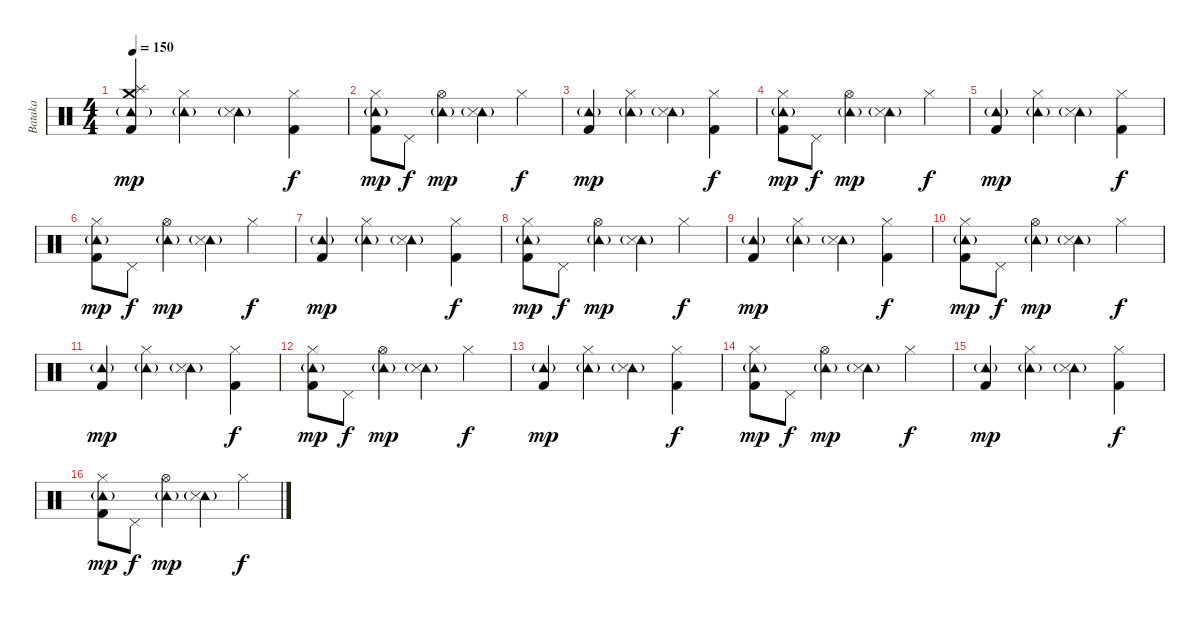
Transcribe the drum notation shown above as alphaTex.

\track ("Bataka" "Bataka") {instrument percussion}
\staff {score}
\articulation defaults
\ts (4 4)
\tempo 150
\clef neutral
\ks c
("Tambourine (hit)"{g} "Crash medium (hit)" "Splash (hit)" "Kick (hit) 2").4{dy mp volume 13} ("Tambourine (hit)"{g} "Hi-Hat (closed)").4 ("Tambourine (hit)"{g} "Snare (side stick) 3").4 ("Hi-Hat (closed)" "Kick (hit) 2").4{dy f} |
("Tambourine (hit)"{g} "Hi-Hat (closed)" "Kick (hit) 2").8{dy mp} "Pedal Hi-Hat (hit)".8{dy f} ("Tambourine (hit)"{g} "Hi-Hat (open)").4{dy mp} ("Tambourine (hit)"{g} "Snare (side stick) 3").4 "Hi-Hat (closed)".4{dy f} |
("Tambourine (hit)"{g} "Kick (hit) 2").4{dy mp} ("Tambourine (hit)"{g} "Hi-Hat (closed)").4 ("Tambourine (hit)"{g} "Snare (side stick) 3").4 ("Hi-Hat (closed)" "Kick (hit) 2").4{dy f} |
("Tambourine (hit)"{g} "Hi-Hat (closed)" "Kick (hit) 2").8{dy mp} "Pedal Hi-Hat (hit)".8{dy f} ("Tambourine (hit)"{g} "Hi-Hat (open)").4{dy mp} ("Tambourine (hit)"{g} "Snare (side stick) 3").4 "Hi-Hat (closed)".4{dy f} |
("Tambourine (hit)"{g} "Kick (hit) 2").4{dy mp} ("Tambourine (hit)"{g} "Hi-Hat (closed)").4 ("Tambourine (hit)"{g} "Snare (side stick) 3").4 ("Hi-Hat (closed)" "Kick (hit) 2").4{dy f} |
("Tambourine (hit)"{g} "Hi-Hat (closed)" "Kick (hit) 2").8{dy mp} "Pedal Hi-Hat (hit)".8{dy f} ("Tambourine (hit)"{g} "Hi-Hat (open)").4{dy mp} ("Tambourine (hit)"{g} "Snare (side stick) 3").4 "Hi-Hat (closed)".4{dy f} |
("Tambourine (hit)"{g} "Kick (hit) 2").4{dy mp} ("Tambourine (hit)"{g} "Hi-Hat (closed)").4 ("Tambourine (hit)"{g} "Snare (side stick) 3").4 ("Hi-Hat (closed)" "Kick (hit) 2").4{dy f} |
("Tambourine (hit)"{g} "Hi-Hat (closed)" "Kick (hit) 2").8{dy mp} "Pedal Hi-Hat (hit)".8{dy f} ("Tambourine (hit)"{g} "Hi-Hat (open)").4{dy mp} ("Tambourine (hit)"{g} "Snare (side stick) 3").4 "Hi-Hat (closed)".4{dy f} |
("Tambourine (hit)"{g} "Kick (hit) 2").4{dy mp} ("Tambourine (hit)"{g} "Hi-Hat (closed)").4 ("Tambourine (hit)"{g} "Snare (side stick) 3").4 ("Hi-Hat (closed)" "Kick (hit) 2").4{dy f} |
("Tambourine (hit)"{g} "Hi-Hat (closed)" "Kick (hit) 2").8{dy mp} "Pedal Hi-Hat (hit)".8{dy f} ("Tambourine (hit)"{g} "Hi-Hat (open)").4{dy mp} ("Tambourine (hit)"{g} "Snare (side stick) 3").4 "Hi-Hat (closed)".4{dy f} |
("Tambourine (hit)"{g} "Kick (hit) 2").4{dy mp} ("Tambourine (hit)"{g} "Hi-Hat (closed)").4 ("Tambourine (hit)"{g} "Snare (side stick) 3").4 ("Hi-Hat (closed)" "Kick (hit) 2").4{dy f} |
("Tambourine (hit)"{g} "Hi-Hat (closed)" "Kick (hit) 2").8{dy mp} "Pedal Hi-Hat (hit)".8{dy f} ("Tambourine (hit)"{g} "Hi-Hat (open)").4{dy mp} ("Tambourine (hit)"{g} "Snare (side stick) 3").4 "Hi-Hat (closed)".4{dy f} |
("Tambourine (hit)"{g} "Kick (hit) 2").4{dy mp} ("Tambourine (hit)"{g} "Hi-Hat (closed)").4 ("Tambourine (hit)"{g} "Snare (side stick) 3").4 ("Hi-Hat (closed)" "Kick (hit) 2").4{dy f} |
("Tambourine (hit)"{g} "Hi-Hat (closed)" "Kick (hit) 2").8{dy mp} "Pedal Hi-Hat (hit)".8{dy f} ("Tambourine (hit)"{g} "Hi-Hat (open)").4{dy mp} ("Tambourine (hit)"{g} "Snare (side stick) 3").4 "Hi-Hat (closed)".4{dy f} |
("Tambourine (hit)"{g} "Kick (hit) 2").4{dy mp} ("Tambourine (hit)"{g} "Hi-Hat (closed)").4 ("Tambourine (hit)"{g} "Snare (side stick) 3").4 ("Hi-Hat (closed)" "Kick (hit) 2").4{dy f} |
("Tambourine (hit)"{g} "Hi-Hat (closed)" "Kick (hit) 2").8{dy mp} "Pedal Hi-Hat (hit)".8{dy f} ("Tambourine (hit)"{g} "Hi-Hat (open)").4{dy mp} ("Tambourine (hit)"{g} "Snare (side stick) 3").4 "Hi-Hat (closed)".4{dy f}
